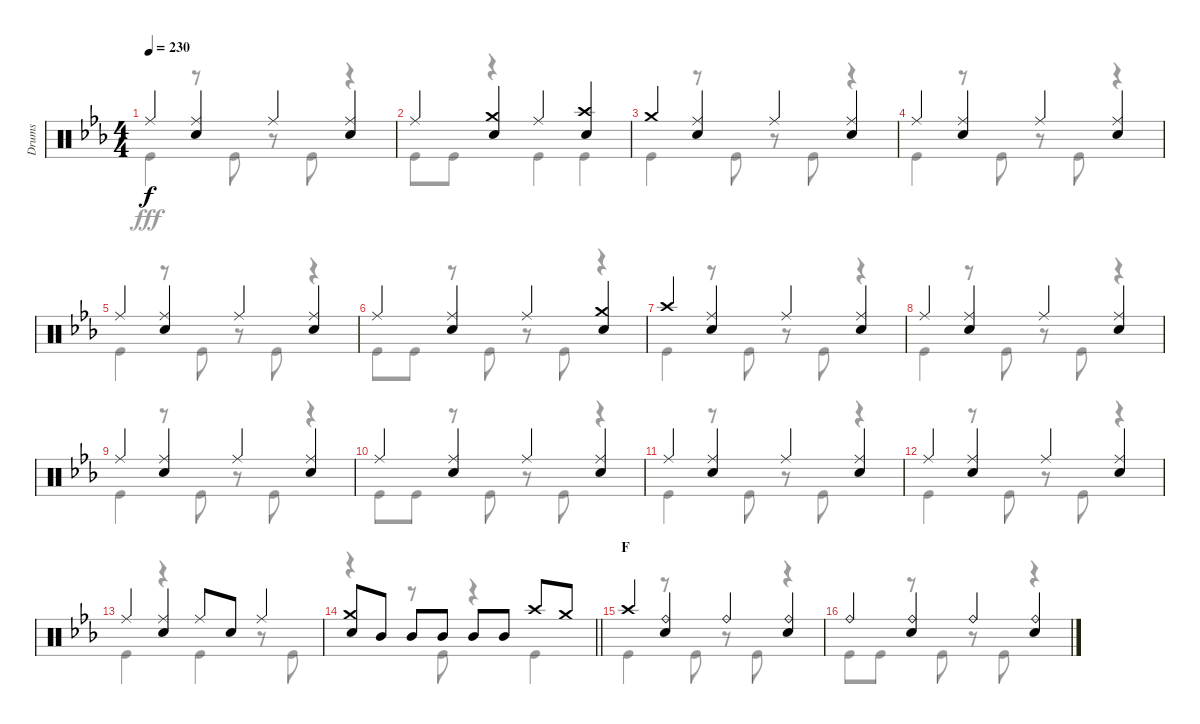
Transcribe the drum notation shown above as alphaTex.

\track ("Drums" "Drums") {instrument percussion}
\staff {score}
\articulation defaults
\voice
\ts (4 4)
\tempo 230
\clef neutral
\ks eb "Ride (middle)".4{dy f}
("Ride (middle)" "Snare (hit) 2").4 "Ride (middle)".4 ("Ride (middle)" "Snare (hit) 2").4 |
"Ride (middle)".4 ("Crash medium (hit)" "Snare (hit) 2").4 "Ride (middle)".4 ("Crash high (hit)" "Snare (hit) 2").4 |
"Crash medium (hit)".4 ("Ride (middle)" "Snare (hit) 2").4 "Ride (middle)".4 ("Ride (middle)" "Snare (hit) 2").4 |
"Ride (middle)".4 ("Ride (middle)" "Snare (hit) 2").4 "Ride (middle)".4 ("Ride (middle)" "Snare (hit) 2").4 |
"Ride (middle)".4 ("Ride (middle)" "Snare (hit) 2").4 "Ride (middle)".4 ("Ride (middle)" "Snare (hit) 2").4 |
"Ride (middle)".4 ("Ride (middle)" "Snare (hit) 2").4 "Ride (middle)".4 ("Crash medium (hit)" "Snare (hit) 2").4 |
"Crash high (hit)".4 ("Ride (middle)" "Snare (hit) 2").4 "Ride (middle)".4 ("Ride (middle)" "Snare (hit) 2").4 |
"Ride (middle)".4 ("Ride (middle)" "Snare (hit) 2").4 "Ride (middle)".4 ("Ride (middle)" "Snare (hit) 2").4 |
"Ride (middle)".4 ("Ride (middle)" "Snare (hit) 2").4 "Ride (middle)".4 ("Ride (middle)" "Snare (hit) 2").4 |
"Ride (middle)".4 ("Ride (middle)" "Snare (hit) 2").4 "Ride (middle)".4 ("Ride (middle)" "Snare (hit) 2").4 |
"Ride (middle)".4 ("Ride (middle)" "Snare (hit) 2").4 "Ride (middle)".4 ("Ride (middle)" "Snare (hit) 2").4 |
"Ride (middle)".4 ("Ride (middle)" "Snare (hit) 2").4 "Ride (middle)".4 ("Ride (middle)" "Snare (hit) 2").4 |
"Ride (middle)".4 ("Ride (middle)" "Snare (hit) 2").4 "Ride (middle)".8 "Snare (hit) 2".8 "Ride (middle)".4 |
\barLineRight lightlight
("Crash medium (hit)" "Snare (hit) 2").8 "Mid Tom (hit)".8 "Mid Tom (hit)".8 "Mid Tom (hit)".8 "Mid Tom (hit)".8 "Mid Tom (hit)".8 "Crash high (hit)".8 "Crash medium (hit)".8 |
\section ("" "F")
"Crash high (hit)".4 ("Ride (bell)" "Snare (hit) 2").4 "Ride (bell)".4 ("Ride (bell)" "Snare (hit) 2").4 |
"Ride (bell)".4 ("Ride (bell)" "Snare (hit) 2").4 "Ride (bell)".4 ("Ride (bell)" "Snare (hit) 2").4
\voice
\clef neutral
\ottava regular
\simile none
\ks eb "Kick (hit)".4{dy fff}
r.8 "Kick (hit)".8 r.8 "Kick (hit)".8 r.4 |
"Kick (hit)".8 "Kick (hit)".8 r.4 "Kick (hit)".4 "Kick (hit)".4 |
"Kick (hit)".4 r.8 "Kick (hit)".8 r.8 "Kick (hit)".8 r.4 |
"Kick (hit)".4 r.8 "Kick (hit)".8 r.8 "Kick (hit)".8 r.4 |
"Kick (hit)".4 r.8 "Kick (hit)".8 r.8 "Kick (hit)".8 r.4 |
"Kick (hit)".8 "Kick (hit)".8 r.8 "Kick (hit)".8 r.8 "Kick (hit)".8 r.4 |
"Kick (hit)".4 r.8 "Kick (hit)".8 r.8 "Kick (hit)".8 r.4 |
"Kick (hit)".4 r.8 "Kick (hit)".8 r.8 "Kick (hit)".8 r.4 |
"Kick (hit)".4 r.8 "Kick (hit)".8 r.8 "Kick (hit)".8 r.4 |
"Kick (hit)".8 "Kick (hit)".8 r.8 "Kick (hit)".8 r.8 "Kick (hit)".8 r.4 |
"Kick (hit)".4 r.8 "Kick (hit)".8 r.8 "Kick (hit)".8 r.4 |
"Kick (hit)".4 r.8 "Kick (hit)".8 r.8 "Kick (hit)".8 r.4 |
"Kick (hit)".4 r.4 "Kick (hit)".4 r.8 "Kick (hit)".8 |
\barLineRight lightlight
r.4 r.8 "Kick (hit)".8 r.4 "Kick (hit)".4 |
"Kick (hit)".4 r.8 "Kick (hit)".8 r.8 "Kick (hit)".8 r.4 |
"Kick (hit)".8 "Kick (hit)".8 r.8 "Kick (hit)".8 r.8 "Kick (hit)".8 r.4
